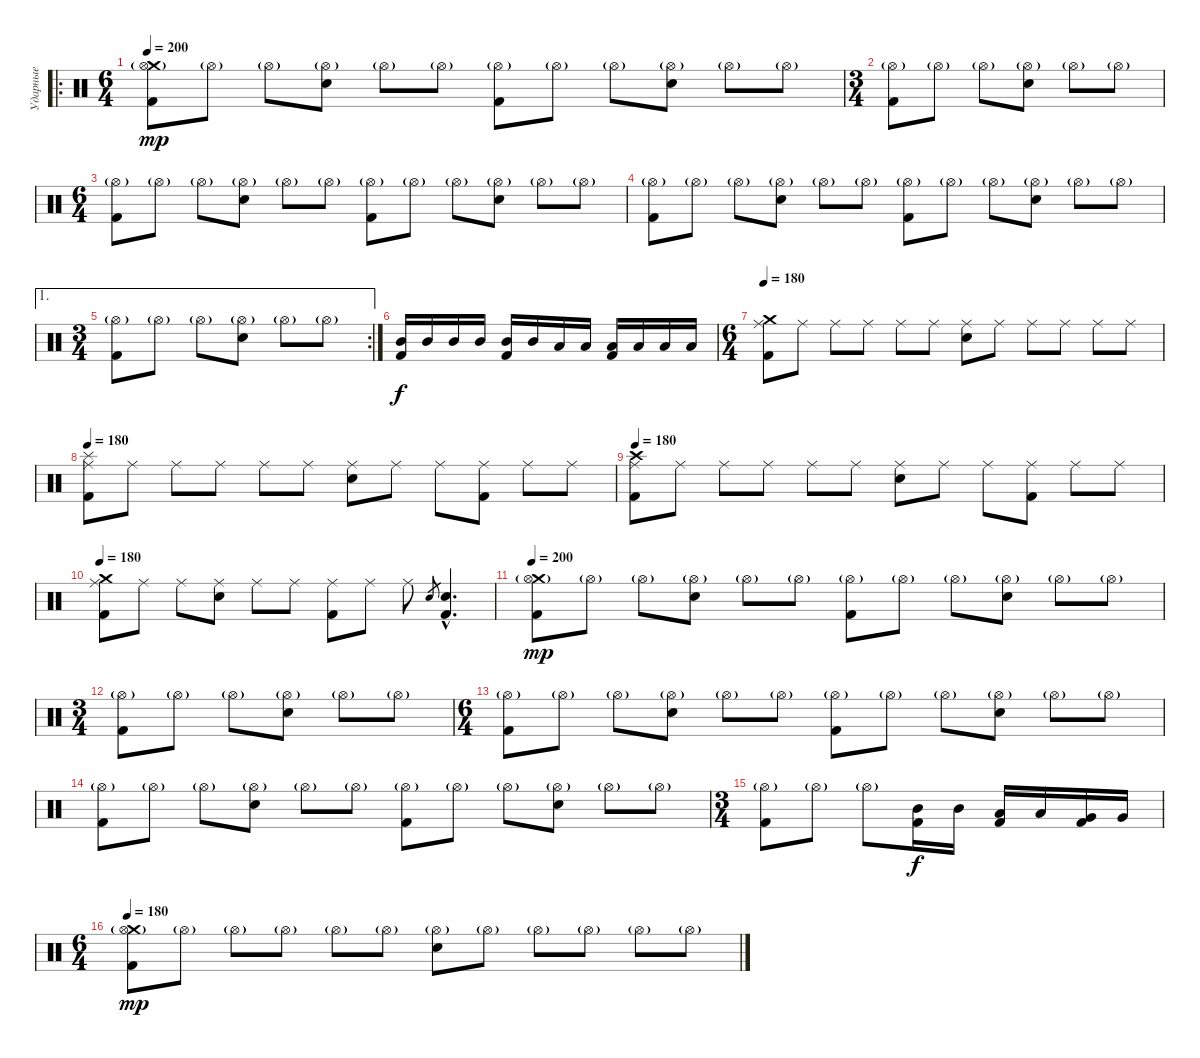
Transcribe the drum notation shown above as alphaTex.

\track ("Ударные" "Ударные") {instrument percussion}
\staff {score}
\articulation defaults
\ro
\ts (6 4)
\tempo 200
\clef neutral
\ks c
("Crash medium (hit)" "Hi-Hat (open)"{g} "Kick (hit) 2").8{dy mp} "Hi-Hat (open)"{g}.8 "Hi-Hat (open)"{g}.8 ("Electric Snare (hit)" "Hi-Hat (open)"{g}).8 "Hi-Hat (open)"{g}.8 "Hi-Hat (open)"{g}.8 ("Hi-Hat (open)"{g} "Kick (hit) 2").8 "Hi-Hat (open)"{g}.8 "Hi-Hat (open)"{g}.8 ("Electric Snare (hit)" "Hi-Hat (open)"{g}).8 "Hi-Hat (open)"{g}.8 "Hi-Hat (open)"{g}.8 |
\ts (3 4)
("Hi-Hat (open)"{g} "Kick (hit) 2").8 "Hi-Hat (open)"{g}.8 "Hi-Hat (open)"{g}.8 ("Electric Snare (hit)" "Hi-Hat (open)"{g}).8 "Hi-Hat (open)"{g}.8 "Hi-Hat (open)"{g}.8 |
\ts (6 4)
("Hi-Hat (open)"{g} "Kick (hit) 2").8 "Hi-Hat (open)"{g}.8 "Hi-Hat (open)"{g}.8 ("Electric Snare (hit)" "Hi-Hat (open)"{g}).8 "Hi-Hat (open)"{g}.8 "Hi-Hat (open)"{g}.8 ("Hi-Hat (open)"{g} "Kick (hit) 2").8 "Hi-Hat (open)"{g}.8 "Hi-Hat (open)"{g}.8 ("Electric Snare (hit)" "Hi-Hat (open)"{g}).8 "Hi-Hat (open)"{g}.8 "Hi-Hat (open)"{g}.8 |
("Hi-Hat (open)"{g} "Kick (hit) 2").8 "Hi-Hat (open)"{g}.8 "Hi-Hat (open)"{g}.8 ("Electric Snare (hit)" "Hi-Hat (open)"{g}).8 "Hi-Hat (open)"{g}.8 "Hi-Hat (open)"{g}.8 ("Hi-Hat (open)"{g} "Kick (hit) 2").8 "Hi-Hat (open)"{g}.8 "Hi-Hat (open)"{g}.8 ("Electric Snare (hit)" "Hi-Hat (open)"{g}).8 "Hi-Hat (open)"{g}.8 "Hi-Hat (open)"{g}.8 |
\ae 1
\rc 2
\ts (3 4)
("Hi-Hat (open)"{g} "Kick (hit) 2").8 "Hi-Hat (open)"{g}.8 "Hi-Hat (open)"{g}.8 ("Electric Snare (hit)" "Hi-Hat (open)"{g}).8 "Hi-Hat (open)"{g}.8 "Hi-Hat (open)"{g}.8 |
("Mid Tom (hit)" "Kick (hit) 2").16{dy f} "Mid Tom (hit)".16 "Mid Tom (hit)".16 "Mid Tom (hit)".16 ("Mid Tom (hit)" "Kick (hit) 2").16 "Mid Tom (hit)".16 "Low Tom (hit)".16 "Low Tom (hit)".16 ("Low Tom (hit)" "Kick (hit) 2").16 "Low Tom (hit)".16 "Low Tom (hit)".16 "Low Tom (hit)".16 |
\ts (6 4)
\tempo 185
\tempo 180
("Crash medium (hit)" "Ride (middle)" "Kick (hit) 2").8 "Ride (middle)".8 "Ride (middle)".8 "Ride (middle)".8 "Ride (middle)".8 "Ride (middle)".8 ("Electric Snare (hit)" "Ride (middle)").8 "Ride (middle)".8 "Ride (middle)".8 "Ride (middle)".8 "Ride (middle)".8 "Ride (middle)".8 |
\tempo 180
("Splash (hit)" "Ride (middle)" "Kick (hit) 2").8 "Ride (middle)".8 "Ride (middle)".8 "Ride (middle)".8 "Ride (middle)".8 "Ride (middle)".8 ("Electric Snare (hit)" "Ride (middle)").8 "Ride (middle)".8 "Ride (middle)".8 ("Ride (middle)" "Kick (hit) 2").8 "Ride (middle)".8 "Ride (middle)".8 |
\tempo 180
("Crash high (hit)" "Ride (middle)" "Kick (hit) 2").8 "Ride (middle)".8 "Ride (middle)".8 "Ride (middle)".8 "Ride (middle)".8 "Ride (middle)".8 ("Electric Snare (hit)" "Ride (middle)").8 "Ride (middle)".8 "Ride (middle)".8 ("Ride (middle)" "Kick (hit) 2").8 "Ride (middle)".8 "Ride (middle)".8 |
\tempo 180
("Crash medium (hit)" "Ride (middle)" "Kick (hit) 2").8 "Ride (middle)".8 "Ride (middle)".8 ("Electric Snare (hit)" "Ride (middle)").8 "Ride (middle)".8 "Ride (middle)".8 ("Ride (middle)" "Kick (hit) 2").8 "Ride (middle)".8 "Ride (middle)".8 "Electric Snare (hit)".8{gr} ("Electric Snare (hit)"{hac} "Kick (hit) 2"{hac}).4{d} |
\tempo 200
("Crash medium (hit)" "Hi-Hat (open)"{g} "Kick (hit) 2").8{dy mp} "Hi-Hat (open)"{g}.8 "Hi-Hat (open)"{g}.8 ("Electric Snare (hit)" "Hi-Hat (open)"{g}).8 "Hi-Hat (open)"{g}.8 "Hi-Hat (open)"{g}.8 ("Hi-Hat (open)"{g} "Kick (hit) 2").8 "Hi-Hat (open)"{g}.8 "Hi-Hat (open)"{g}.8 ("Electric Snare (hit)" "Hi-Hat (open)"{g}).8 "Hi-Hat (open)"{g}.8 "Hi-Hat (open)"{g}.8 |
\ts (3 4)
("Hi-Hat (open)"{g} "Kick (hit) 2").8 "Hi-Hat (open)"{g}.8 "Hi-Hat (open)"{g}.8 ("Electric Snare (hit)" "Hi-Hat (open)"{g}).8 "Hi-Hat (open)"{g}.8 "Hi-Hat (open)"{g}.8 |
\ts (6 4)
("Hi-Hat (open)"{g} "Kick (hit) 2").8 "Hi-Hat (open)"{g}.8 "Hi-Hat (open)"{g}.8 ("Electric Snare (hit)" "Hi-Hat (open)"{g}).8 "Hi-Hat (open)"{g}.8 "Hi-Hat (open)"{g}.8 ("Hi-Hat (open)"{g} "Kick (hit) 2").8 "Hi-Hat (open)"{g}.8 "Hi-Hat (open)"{g}.8 ("Electric Snare (hit)" "Hi-Hat (open)"{g}).8 "Hi-Hat (open)"{g}.8 "Hi-Hat (open)"{g}.8 |
("Hi-Hat (open)"{g} "Kick (hit) 2").8 "Hi-Hat (open)"{g}.8 "Hi-Hat (open)"{g}.8 ("Electric Snare (hit)" "Hi-Hat (open)"{g}).8 "Hi-Hat (open)"{g}.8 "Hi-Hat (open)"{g}.8 ("Hi-Hat (open)"{g} "Kick (hit) 2").8 "Hi-Hat (open)"{g}.8 "Hi-Hat (open)"{g}.8 ("Electric Snare (hit)" "Hi-Hat (open)"{g}).8 "Hi-Hat (open)"{g}.8 "Hi-Hat (open)"{g}.8 |
\ts (3 4)
("Hi-Hat (open)"{g} "Kick (hit) 2").8 "Hi-Hat (open)"{g}.8 "Hi-Hat (open)"{g}.8 ("Mid Tom (hit)" "Kick (hit) 2").16{dy f} "Mid Tom (hit)".16 ("Low Tom (hit)" "Kick (hit) 2").16 "Low Tom (hit)".16 ("Very Low Tom (hit)" "Kick (hit) 2").16 "Very Low Tom (hit)".16 |
\ts (6 4)
\tempo 185
\tempo 180
("Crash medium (hit)" "Hi-Hat (open)"{g} "Kick (hit) 2").8{dy mp} "Hi-Hat (open)"{g}.8 "Hi-Hat (open)"{g}.8 "Hi-Hat (open)"{g}.8 "Hi-Hat (open)"{g}.8 "Hi-Hat (open)"{g}.8 ("Electric Snare (hit)" "Hi-Hat (open)"{g}).8 "Hi-Hat (open)"{g}.8 "Hi-Hat (open)"{g}.8 "Hi-Hat (open)"{g}.8 "Hi-Hat (open)"{g}.8 "Hi-Hat (open)"{g}.8
